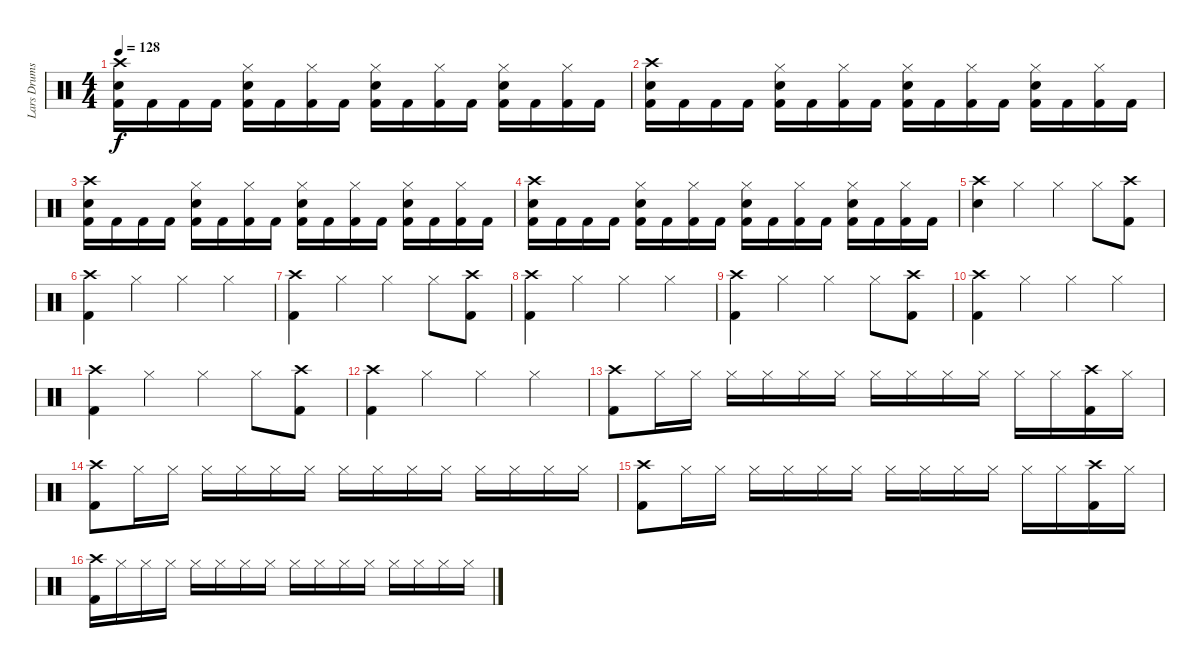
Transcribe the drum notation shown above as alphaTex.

\track ("Lars Drums" "Lars Drums") {instrument percussion}
\staff {score}
\articulation defaults
\ts (4 4)
\tempo 128
\clef neutral
\ks c
("Crash high (hit)" "Electric Snare (hit)" "Kick (hit) 2").16{dy f} "Kick (hit) 2".16 "Kick (hit) 2".16 "Kick (hit) 2".16 ("Hi-Hat (closed)" "Electric Snare (hit)" "Kick (hit) 2").16 "Kick (hit) 2".16 ("Hi-Hat (closed)" "Kick (hit) 2").16 "Kick (hit) 2".16 ("Hi-Hat (closed)" "Electric Snare (hit)" "Kick (hit) 2").16 "Kick (hit) 2".16 ("Hi-Hat (closed)" "Kick (hit) 2").16 "Kick (hit) 2".16 ("Hi-Hat (closed)" "Electric Snare (hit)" "Kick (hit) 2").16 "Kick (hit) 2".16 ("Hi-Hat (closed)" "Kick (hit) 2").16 "Kick (hit) 2".16 |
("Crash high (hit)" "Electric Snare (hit)" "Kick (hit) 2").16 "Kick (hit) 2".16 "Kick (hit) 2".16 "Kick (hit) 2".16 ("Hi-Hat (closed)" "Electric Snare (hit)" "Kick (hit) 2").16 "Kick (hit) 2".16 ("Hi-Hat (closed)" "Kick (hit) 2").16 "Kick (hit) 2".16 ("Hi-Hat (closed)" "Electric Snare (hit)" "Kick (hit) 2").16 "Kick (hit) 2".16 ("Hi-Hat (closed)" "Kick (hit) 2").16 "Kick (hit) 2".16 ("Hi-Hat (closed)" "Electric Snare (hit)" "Kick (hit) 2").16 "Kick (hit) 2".16 ("Hi-Hat (closed)" "Kick (hit) 2").16 "Kick (hit) 2".16 |
("Crash high (hit)" "Electric Snare (hit)" "Kick (hit) 2").16 "Kick (hit) 2".16 "Kick (hit) 2".16 "Kick (hit) 2".16 ("Hi-Hat (closed)" "Electric Snare (hit)" "Kick (hit) 2").16 "Kick (hit) 2".16 ("Hi-Hat (closed)" "Kick (hit) 2").16 "Kick (hit) 2".16 ("Hi-Hat (closed)" "Electric Snare (hit)" "Kick (hit) 2").16 "Kick (hit) 2".16 ("Hi-Hat (closed)" "Kick (hit) 2").16 "Kick (hit) 2".16 ("Hi-Hat (closed)" "Electric Snare (hit)" "Kick (hit) 2").16 "Kick (hit) 2".16 ("Hi-Hat (closed)" "Kick (hit) 2").16 "Kick (hit) 2".16 |
("Crash high (hit)" "Electric Snare (hit)" "Kick (hit) 2").16 "Kick (hit) 2".16 "Kick (hit) 2".16 "Kick (hit) 2".16 ("Hi-Hat (closed)" "Electric Snare (hit)" "Kick (hit) 2").16 "Kick (hit) 2".16 ("Hi-Hat (closed)" "Kick (hit) 2").16 "Kick (hit) 2".16 ("Hi-Hat (closed)" "Electric Snare (hit)" "Kick (hit) 2").16 "Kick (hit) 2".16 ("Hi-Hat (closed)" "Kick (hit) 2").16 "Kick (hit) 2".16 ("Hi-Hat (closed)" "Electric Snare (hit)" "Kick (hit) 2").16 "Kick (hit) 2".16 ("Hi-Hat (closed)" "Kick (hit) 2").16 "Kick (hit) 2".16 |
("Crash high (hit)" "Electric Snare (hit)").4 "Hi-Hat (closed)".4 "Hi-Hat (closed)".4 "Hi-Hat (closed)".8 ("Crash high (hit)" "Kick (hit) 2").8 |
("Crash high (hit)" "Kick (hit) 2").4 "Hi-Hat (closed)".4 "Hi-Hat (closed)".4 "Hi-Hat (closed)".4 |
("Crash high (hit)" "Kick (hit) 2").4 "Hi-Hat (closed)".4 "Hi-Hat (closed)".4 "Hi-Hat (closed)".8 ("Crash high (hit)" "Kick (hit) 2").8 |
("Crash high (hit)" "Kick (hit) 2").4 "Hi-Hat (closed)".4 "Hi-Hat (closed)".4 "Hi-Hat (closed)".4 |
("Crash high (hit)" "Kick (hit) 2").4 "Hi-Hat (closed)".4 "Hi-Hat (closed)".4 "Hi-Hat (closed)".8 ("Crash high (hit)" "Kick (hit) 2").8 |
("Crash high (hit)" "Kick (hit) 2").4 "Hi-Hat (closed)".4 "Hi-Hat (closed)".4 "Hi-Hat (closed)".4 |
("Crash high (hit)" "Kick (hit) 2").4 "Hi-Hat (closed)".4 "Hi-Hat (closed)".4 "Hi-Hat (closed)".8 ("Crash high (hit)" "Kick (hit) 2").8 |
("Crash high (hit)" "Kick (hit) 2").4 "Hi-Hat (closed)".4 "Hi-Hat (closed)".4 "Hi-Hat (closed)".4 |
("Crash high (hit)" "Kick (hit) 2").8 "Hi-Hat (closed)".16 "Hi-Hat (closed)".16 "Hi-Hat (closed)".16 "Hi-Hat (closed)".16 "Hi-Hat (closed)".16 "Hi-Hat (closed)".16 "Hi-Hat (closed)".16 "Hi-Hat (closed)".16 "Hi-Hat (closed)".16 "Hi-Hat (closed)".16 "Hi-Hat (closed)".16 "Hi-Hat (closed)".16 ("Crash high (hit)" "Kick (hit) 2").16 "Hi-Hat (closed)".16 |
("Crash high (hit)" "Kick (hit) 2").8 "Hi-Hat (closed)".16 "Hi-Hat (closed)".16 "Hi-Hat (closed)".16 "Hi-Hat (closed)".16 "Hi-Hat (closed)".16 "Hi-Hat (closed)".16 "Hi-Hat (closed)".16 "Hi-Hat (closed)".16 "Hi-Hat (closed)".16 "Hi-Hat (closed)".16 "Hi-Hat (closed)".16 "Hi-Hat (closed)".16 "Hi-Hat (closed)".16 "Hi-Hat (closed)".16 |
("Crash high (hit)" "Kick (hit) 2").8 "Hi-Hat (closed)".16 "Hi-Hat (closed)".16 "Hi-Hat (closed)".16 "Hi-Hat (closed)".16 "Hi-Hat (closed)".16 "Hi-Hat (closed)".16 "Hi-Hat (closed)".16 "Hi-Hat (closed)".16 "Hi-Hat (closed)".16 "Hi-Hat (closed)".16 "Hi-Hat (closed)".16 "Hi-Hat (closed)".16 ("Crash high (hit)" "Kick (hit) 2").16 "Hi-Hat (closed)".16 |
("Crash high (hit)" "Kick (hit) 2").16 "Hi-Hat (closed)".16 "Hi-Hat (closed)".16 "Hi-Hat (closed)".16 "Hi-Hat (closed)".16 "Hi-Hat (closed)".16 "Hi-Hat (closed)".16 "Hi-Hat (closed)".16 "Hi-Hat (closed)".16 "Hi-Hat (closed)".16 "Hi-Hat (closed)".16 "Hi-Hat (closed)".16 "Hi-Hat (closed)".16 "Hi-Hat (closed)".16 "Hi-Hat (closed)".16 "Hi-Hat (closed)".16
